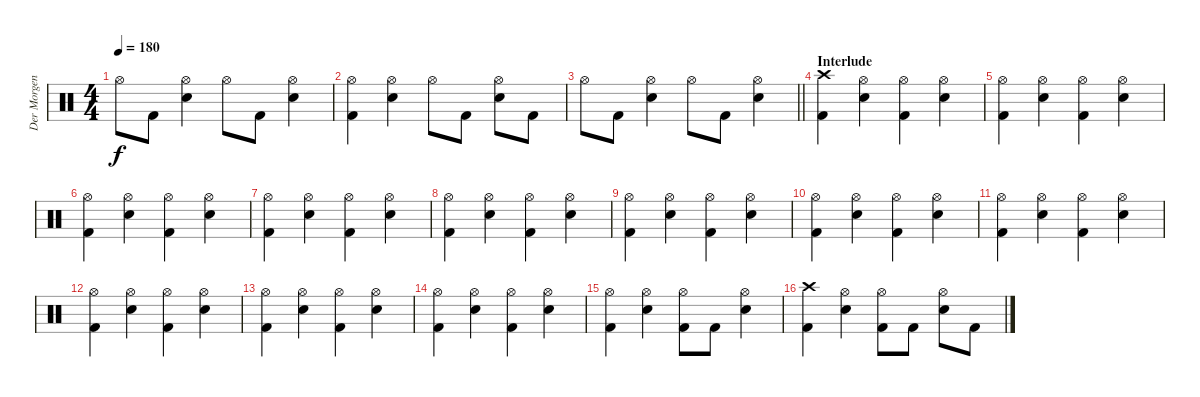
\track ("Der Morgenstern" "Der Morgen") {instrument percussion}
\staff {score}
\articulation defaults
\ts (4 4)
\tempo 180
\clef neutral
\ks c "Hi-Hat (open)".8{dy f} "Kick (hit) 2".8
("Hi-Hat (open)" "Electric Snare (hit)").4 "Hi-Hat (open)".8 "Kick (hit) 2".8 ("Hi-Hat (open)" "Electric Snare (hit)").4 |
("Hi-Hat (open)" "Kick (hit) 2").4 ("Hi-Hat (open)" "Electric Snare (hit)").4 "Hi-Hat (open)".8 "Kick (hit) 2".8 ("Hi-Hat (open)" "Electric Snare (hit)").8 "Kick (hit) 2".8 |
\barLineRight lightlight "Hi-Hat (open)".8 "Kick (hit) 2".8
("Hi-Hat (open)" "Electric Snare (hit)").4 "Hi-Hat (open)".8 "Kick (hit) 2".8 ("Hi-Hat (open)" "Electric Snare (hit)").4 |
\section ("" "Interlude")
("Crash high (hit)" "Kick (hit) 2").4 ("Hi-Hat (open)" "Electric Snare (hit)").4 ("Hi-Hat (open)" "Kick (hit) 2").4 ("Hi-Hat (open)" "Electric Snare (hit)").4 |
("Hi-Hat (open)" "Kick (hit) 2").4 ("Hi-Hat (open)" "Electric Snare (hit)").4 ("Hi-Hat (open)" "Kick (hit) 2").4 ("Hi-Hat (open)" "Electric Snare (hit)").4 |
("Hi-Hat (open)" "Kick (hit) 2").4 ("Hi-Hat (open)" "Electric Snare (hit)").4 ("Hi-Hat (open)" "Kick (hit) 2").4 ("Hi-Hat (open)" "Electric Snare (hit)").4 |
("Hi-Hat (open)" "Kick (hit) 2").4 ("Hi-Hat (open)" "Electric Snare (hit)").4 ("Hi-Hat (open)" "Kick (hit) 2").4 ("Hi-Hat (open)" "Electric Snare (hit)").4 |
("Hi-Hat (open)" "Kick (hit) 2").4 ("Hi-Hat (open)" "Electric Snare (hit)").4 ("Hi-Hat (open)" "Kick (hit) 2").4 ("Hi-Hat (open)" "Electric Snare (hit)").4 |
("Hi-Hat (open)" "Kick (hit) 2").4 ("Hi-Hat (open)" "Electric Snare (hit)").4 ("Hi-Hat (open)" "Kick (hit) 2").4 ("Hi-Hat (open)" "Electric Snare (hit)").4 |
("Hi-Hat (open)" "Kick (hit) 2").4 ("Hi-Hat (open)" "Electric Snare (hit)").4 ("Hi-Hat (open)" "Kick (hit) 2").4 ("Hi-Hat (open)" "Electric Snare (hit)").4 |
("Hi-Hat (open)" "Kick (hit) 2").4 ("Hi-Hat (open)" "Electric Snare (hit)").4 ("Hi-Hat (open)" "Kick (hit) 2").4 ("Hi-Hat (open)" "Electric Snare (hit)").4 |
("Hi-Hat (open)" "Kick (hit) 2").4 ("Hi-Hat (open)" "Electric Snare (hit)").4 ("Hi-Hat (open)" "Kick (hit) 2").4 ("Hi-Hat (open)" "Electric Snare (hit)").4 |
("Hi-Hat (open)" "Kick (hit) 2").4 ("Hi-Hat (open)" "Electric Snare (hit)").4 ("Hi-Hat (open)" "Kick (hit) 2").4 ("Hi-Hat (open)" "Electric Snare (hit)").4 |
("Hi-Hat (open)" "Kick (hit) 2").4 ("Hi-Hat (open)" "Electric Snare (hit)").4 ("Hi-Hat (open)" "Kick (hit) 2").4 ("Hi-Hat (open)" "Electric Snare (hit)").4 |
("Hi-Hat (open)" "Kick (hit) 2").4 ("Hi-Hat (open)" "Electric Snare (hit)").4 ("Hi-Hat (open)" "Kick (hit) 2").8 "Kick (hit) 2".8 ("Hi-Hat (open)" "Electric Snare (hit)").4 |
("Crash high (hit)" "Kick (hit) 2").4 ("Hi-Hat (open)" "Electric Snare (hit)").4 ("Hi-Hat (open)" "Kick (hit) 2").8 "Kick (hit) 2".8 ("Hi-Hat (open)" "Electric Snare (hit)").8 "Kick (hit) 2".8
